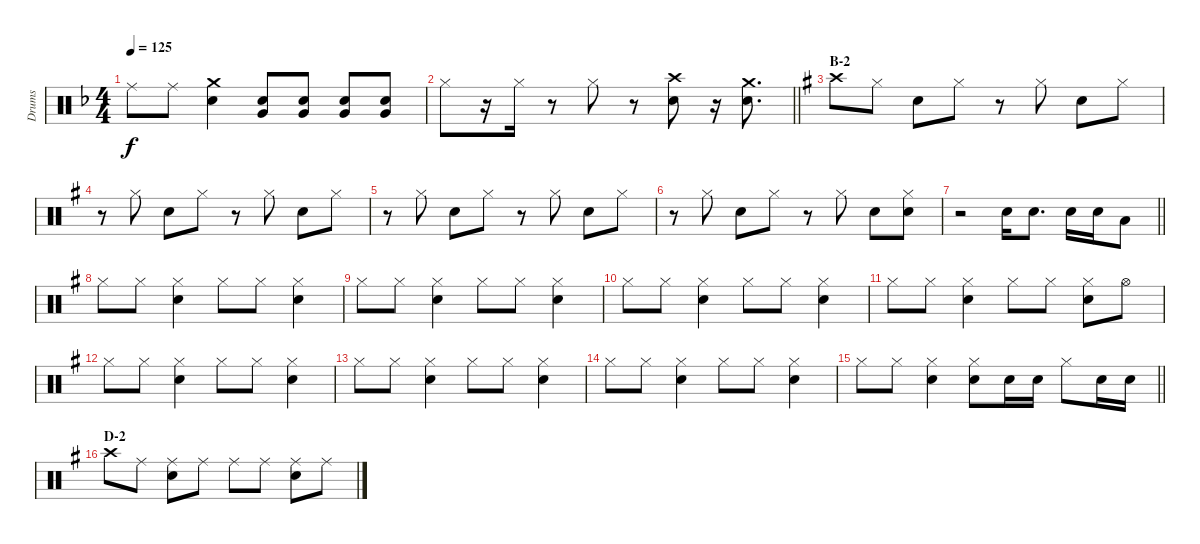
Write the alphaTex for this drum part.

\track ("Drums" "Drums") {instrument percussion}
\staff {score}
\articulation defaults
\ts (4 4)
\tempo 125
\clef neutral
\ks f "Ride (middle)".8{dy f} "Ride (middle)".8
("Crash medium (hit)" "Snare (hit) 2").4 ("Snare (hit) 2" "Very Low Tom (hit)").8 ("Snare (hit) 2" "Very Low Tom (hit)").8 ("Snare (hit) 2" "Very Low Tom (hit)").8 ("Snare (hit) 2" "Very Low Tom (hit)").8 |
\barLineRight lightlight "Hi-Hat (closed)".8
r.16 "Hi-Hat (closed)".16 r.8 "Hi-Hat (closed)".8 r.8 ("Crash high (hit)" "Snare (hit) 2").8 r.16 ("Crash medium (hit)" "Snare (hit) 2").8{d} |
\section ("" "B-2")
\ks g "Crash high (hit)".8 "Hi-Hat (closed)".8 "Snare (hit) 2".8 "Hi-Hat (closed)".8
r.8 "Hi-Hat (closed)".8 "Snare (hit) 2".8 "Hi-Hat (closed)".8 |
r.8 "Hi-Hat (closed)".8 "Snare (hit) 2".8 "Hi-Hat (closed)".8 r.8 "Hi-Hat (closed)".8 "Snare (hit) 2".8 "Hi-Hat (closed)".8 |
r.8 "Hi-Hat (closed)".8 "Snare (hit) 2".8 "Hi-Hat (closed)".8 r.8 "Hi-Hat (closed)".8 "Snare (hit) 2".8 "Hi-Hat (closed)".8 |
r.8 "Hi-Hat (closed)".8 "Snare (hit) 2".8 "Hi-Hat (closed)".8 r.8 "Hi-Hat (closed)".8 "Snare (hit) 2".8 ("Hi-Hat (closed)" "Snare (hit) 2").8 |
\barLineRight lightlight
r.2 "Snare (hit) 2".16 "Snare (hit) 2".8{d} "Snare (hit) 2".16 "Snare (hit) 2".16 "Low Tom (hit)".8 |
"Hi-Hat (closed)".8 "Hi-Hat (closed)".8 ("Hi-Hat (closed)" "Snare (hit) 2").4 "Hi-Hat (closed)".8 "Hi-Hat (closed)".8 ("Hi-Hat (closed)" "Snare (hit) 2").4 |
"Hi-Hat (closed)".8 "Hi-Hat (closed)".8 ("Hi-Hat (closed)" "Snare (hit) 2").4 "Hi-Hat (closed)".8 "Hi-Hat (closed)".8 ("Hi-Hat (closed)" "Snare (hit) 2").4 |
"Hi-Hat (closed)".8 "Hi-Hat (closed)".8 ("Hi-Hat (closed)" "Snare (hit) 2").4 "Hi-Hat (closed)".8 "Hi-Hat (closed)".8 ("Hi-Hat (closed)" "Snare (hit) 2").4 |
"Hi-Hat (closed)".8 "Hi-Hat (closed)".8 ("Hi-Hat (closed)" "Snare (hit) 2").4 "Hi-Hat (closed)".8 "Hi-Hat (closed)".8 ("Hi-Hat (closed)" "Snare (hit) 2").8 "Hi-Hat (open)".8 |
"Hi-Hat (closed)".8 "Hi-Hat (closed)".8 ("Hi-Hat (closed)" "Snare (hit) 2").4 "Hi-Hat (closed)".8 "Hi-Hat (closed)".8 ("Hi-Hat (closed)" "Snare (hit) 2").4 |
"Hi-Hat (closed)".8 "Hi-Hat (closed)".8 ("Hi-Hat (closed)" "Snare (hit) 2").4 "Hi-Hat (closed)".8 "Hi-Hat (closed)".8 ("Hi-Hat (closed)" "Snare (hit) 2").4 |
"Hi-Hat (closed)".8 "Hi-Hat (closed)".8 ("Hi-Hat (closed)" "Snare (hit) 2").4 "Hi-Hat (closed)".8 "Hi-Hat (closed)".8 ("Hi-Hat (closed)" "Snare (hit) 2").4 |
\barLineRight lightlight "Hi-Hat (closed)".8 "Hi-Hat (closed)".8
("Hi-Hat (closed)" "Snare (hit) 2").4 ("Hi-Hat (closed)" "Snare (hit) 2").8 "Snare (hit) 2".16 "Snare (hit) 2".16 "Hi-Hat (closed)".8 "Snare (hit) 2".16 "Snare (hit) 2".16 |
\section ("" "D-2")
"Crash high (hit)".8 "Ride (middle)".8 ("Ride (middle)" "Snare (hit) 2").8 "Ride (middle)".8 "Ride (middle)".8 "Ride (middle)".8 ("Ride (middle)" "Snare (hit) 2").8 "Ride (middle)".8
